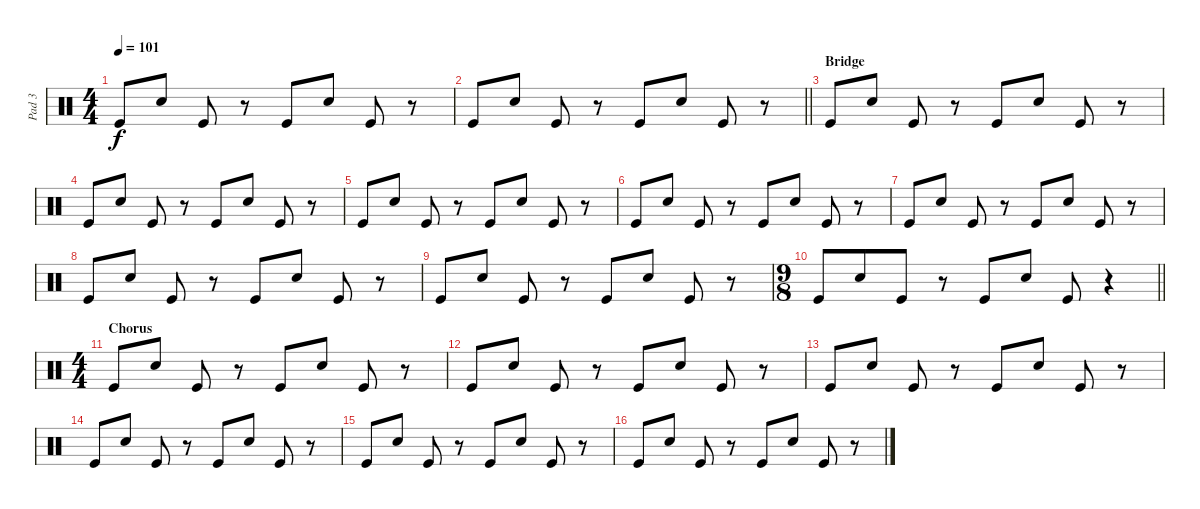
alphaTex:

\track ("Pad 3" "Pad 3") {instrument percussion}
\staff {score}
\articulation defaults
\ts (4 4)
\tempo 101
\clef neutral
\ks c "Kick (hit)".8{dy f} "Electric Snare (hit)".8 "Kick (hit)".8
r.8 "Kick (hit)".8 "Electric Snare (hit)".8 "Kick (hit)".8 r.8 |
\barLineRight lightlight "Kick (hit)".8 "Electric Snare (hit)".8 "Kick (hit)".8
r.8 "Kick (hit)".8 "Electric Snare (hit)".8 "Kick (hit)".8 r.8 |
\section ("" "Bridge")
"Kick (hit)".8 "Electric Snare (hit)".8 "Kick (hit)".8 r.8 "Kick (hit)".8 "Electric Snare (hit)".8 "Kick (hit)".8 r.8 |
"Kick (hit)".8 "Electric Snare (hit)".8 "Kick (hit)".8 r.8 "Kick (hit)".8 "Electric Snare (hit)".8 "Kick (hit)".8 r.8 |
"Kick (hit)".8 "Electric Snare (hit)".8 "Kick (hit)".8 r.8 "Kick (hit)".8 "Electric Snare (hit)".8 "Kick (hit)".8 r.8 |
"Kick (hit)".8 "Electric Snare (hit)".8 "Kick (hit)".8 r.8 "Kick (hit)".8 "Electric Snare (hit)".8 "Kick (hit)".8 r.8 |
"Kick (hit)".8 "Electric Snare (hit)".8 "Kick (hit)".8 r.8 "Kick (hit)".8 "Electric Snare (hit)".8 "Kick (hit)".8 r.8 |
"Kick (hit)".8 "Electric Snare (hit)".8 "Kick (hit)".8 r.8 "Kick (hit)".8 "Electric Snare (hit)".8 "Kick (hit)".8 r.8 |
"Kick (hit)".8 "Electric Snare (hit)".8 "Kick (hit)".8 r.8 "Kick (hit)".8 "Electric Snare (hit)".8 "Kick (hit)".8 r.8 |
\ts (9 8)
\barLineRight lightlight "Kick (hit)".8 "Electric Snare (hit)".8 "Kick (hit)".8
r.8 "Kick (hit)".8 "Electric Snare (hit)".8 "Kick (hit)".8 r.4 |
\ts (4 4)
\section ("" "Chorus")
"Kick (hit)".8 "Electric Snare (hit)".8 "Kick (hit)".8 r.8 "Kick (hit)".8 "Electric Snare (hit)".8 "Kick (hit)".8 r.8 |
"Kick (hit)".8 "Electric Snare (hit)".8 "Kick (hit)".8 r.8 "Kick (hit)".8 "Electric Snare (hit)".8 "Kick (hit)".8 r.8 |
"Kick (hit)".8 "Electric Snare (hit)".8 "Kick (hit)".8 r.8 "Kick (hit)".8 "Electric Snare (hit)".8 "Kick (hit)".8 r.8 |
"Kick (hit)".8 "Electric Snare (hit)".8 "Kick (hit)".8 r.8 "Kick (hit)".8 "Electric Snare (hit)".8 "Kick (hit)".8 r.8 |
"Kick (hit)".8 "Electric Snare (hit)".8 "Kick (hit)".8 r.8 "Kick (hit)".8 "Electric Snare (hit)".8 "Kick (hit)".8 r.8 |
"Kick (hit)".8 "Electric Snare (hit)".8 "Kick (hit)".8 r.8 "Kick (hit)".8 "Electric Snare (hit)".8 "Kick (hit)".8 r.8
